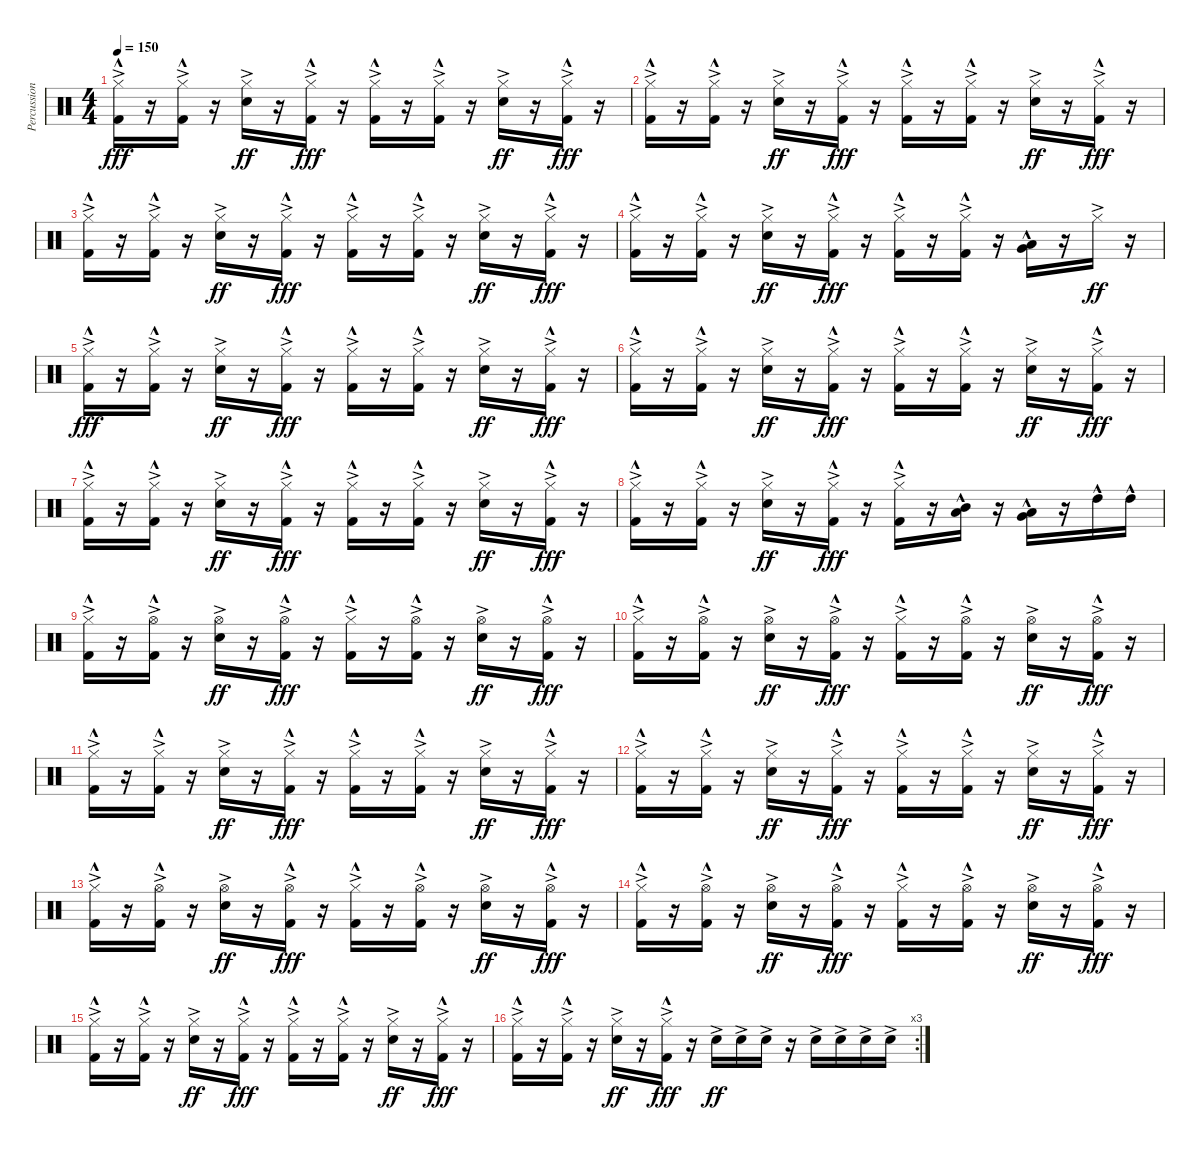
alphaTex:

\track ("Percussion" "Percussion") {instrument percussion bank 2}
\staff {score}
\articulation defaults
\ts (4 4)
\tempo 150
\clef neutral
\ks c
("Hi-Hat (closed)"{ac} "Kick (hit) 2"{hac}).16{dy fff} r.16 ("Hi-Hat (closed)"{ac} "Kick (hit) 2"{hac}).16 r.16 ("Hi-Hat (closed)"{ac} "Snare (hit) 2"{ac}).16{dy ff} r.16 ("Hi-Hat (closed)"{ac} "Kick (hit) 2"{hac}).16{dy fff} r.16 ("Hi-Hat (closed)"{ac} "Kick (hit) 2"{hac}).16 r.16 ("Hi-Hat (closed)"{ac} "Kick (hit) 2"{hac}).16 r.16 ("Hi-Hat (closed)"{ac} "Snare (hit) 2"{ac}).16{dy ff} r.16 ("Hi-Hat (closed)"{ac} "Kick (hit) 2"{hac}).16{dy fff} r.16 |
("Hi-Hat (closed)"{ac} "Kick (hit) 2"{hac}).16 r.16 ("Hi-Hat (closed)"{ac} "Kick (hit) 2"{hac}).16 r.16 ("Hi-Hat (closed)"{ac} "Snare (hit) 2"{ac}).16{dy ff} r.16 ("Hi-Hat (closed)"{ac} "Kick (hit) 2"{hac}).16{dy fff} r.16 ("Hi-Hat (closed)"{ac} "Kick (hit) 2"{hac}).16 r.16 ("Hi-Hat (closed)"{ac} "Kick (hit) 2"{hac}).16 r.16 ("Hi-Hat (closed)"{ac} "Snare (hit) 2"{ac}).16{dy ff} r.16 ("Hi-Hat (closed)"{ac} "Kick (hit) 2"{hac}).16{dy fff} r.16 |
("Hi-Hat (closed)"{ac} "Kick (hit) 2"{hac}).16 r.16 ("Hi-Hat (closed)"{ac} "Kick (hit) 2"{hac}).16 r.16 ("Hi-Hat (closed)"{ac} "Snare (hit) 2"{ac}).16{dy ff} r.16 ("Hi-Hat (closed)"{ac} "Kick (hit) 2"{hac}).16{dy fff} r.16 ("Hi-Hat (closed)"{ac} "Kick (hit) 2"{hac}).16 r.16 ("Hi-Hat (closed)"{ac} "Kick (hit) 2"{hac}).16 r.16 ("Hi-Hat (closed)"{ac} "Snare (hit) 2"{ac}).16{dy ff} r.16 ("Hi-Hat (closed)"{ac} "Kick (hit) 2"{hac}).16{dy fff} r.16 |
("Hi-Hat (closed)"{ac} "Kick (hit) 2"{hac}).16 r.16 ("Hi-Hat (closed)"{ac} "Kick (hit) 2"{hac}).16 r.16 ("Hi-Hat (closed)"{ac} "Snare (hit) 2"{ac}).16{dy ff} r.16 ("Hi-Hat (closed)"{ac} "Kick (hit) 2"{hac}).16{dy fff} r.16 ("Hi-Hat (closed)"{ac} "Kick (hit) 2"{hac}).16 r.16 ("Hi-Hat (closed)"{ac} "Kick (hit) 2"{hac}).16 r.16 ("Very Low Tom (hit)"{hac} "Low Tom (hit)"{hac}).16 r.16 "Hi-Hat (closed)"{ac}.16{dy ff} r.16 |
("Hi-Hat (closed)"{ac} "Kick (hit) 2"{hac}).16{dy fff} r.16 ("Hi-Hat (closed)"{ac} "Kick (hit) 2"{hac}).16 r.16 ("Hi-Hat (closed)"{ac} "Snare (hit) 2"{ac}).16{dy ff} r.16 ("Hi-Hat (closed)"{ac} "Kick (hit) 2"{hac}).16{dy fff} r.16 ("Hi-Hat (closed)"{ac} "Kick (hit) 2"{hac}).16 r.16 ("Hi-Hat (closed)"{ac} "Kick (hit) 2"{hac}).16 r.16 ("Hi-Hat (closed)"{ac} "Snare (hit) 2"{ac}).16{dy ff} r.16 ("Hi-Hat (closed)"{ac} "Kick (hit) 2"{hac}).16{dy fff} r.16 |
("Hi-Hat (closed)"{ac} "Kick (hit) 2"{hac}).16 r.16 ("Hi-Hat (closed)"{ac} "Kick (hit) 2"{hac}).16 r.16 ("Hi-Hat (closed)"{ac} "Snare (hit) 2"{ac}).16{dy ff} r.16 ("Hi-Hat (closed)"{ac} "Kick (hit) 2"{hac}).16{dy fff} r.16 ("Hi-Hat (closed)"{ac} "Kick (hit) 2"{hac}).16 r.16 ("Hi-Hat (closed)"{ac} "Kick (hit) 2"{hac}).16 r.16 ("Hi-Hat (closed)"{ac} "Snare (hit) 2"{ac}).16{dy ff} r.16 ("Hi-Hat (closed)"{ac} "Kick (hit) 2"{hac}).16{dy fff} r.16 |
("Hi-Hat (closed)"{ac} "Kick (hit) 2"{hac}).16 r.16 ("Hi-Hat (closed)"{ac} "Kick (hit) 2"{hac}).16 r.16 ("Hi-Hat (closed)"{ac} "Snare (hit) 2"{ac}).16{dy ff} r.16 ("Hi-Hat (closed)"{ac} "Kick (hit) 2"{hac}).16{dy fff} r.16 ("Hi-Hat (closed)"{ac} "Kick (hit) 2"{hac}).16 r.16 ("Hi-Hat (closed)"{ac} "Kick (hit) 2"{hac}).16 r.16 ("Hi-Hat (closed)"{ac} "Snare (hit) 2"{ac}).16{dy ff} r.16 ("Hi-Hat (closed)"{ac} "Kick (hit) 2"{hac}).16{dy fff} r.16 |
("Hi-Hat (closed)"{ac} "Kick (hit) 2"{hac}).16 r.16 ("Hi-Hat (closed)"{ac} "Kick (hit) 2"{hac}).16 r.16 ("Hi-Hat (closed)"{ac} "Snare (hit) 2"{ac}).16{dy ff} r.16 ("Hi-Hat (closed)"{ac} "Kick (hit) 2"{hac}).16{dy fff} r.16 ("Hi-Hat (closed)"{ac} "Kick (hit) 2"{hac}).16 r.16 ("Mid Tom (hit)"{hac} "Low Tom (hit)"{hac}).16 r.16 ("Low Tom (hit)"{hac} "Very Low Tom (hit)"{hac}).16 r.16 "High Tom (hit)"{hac}.16 "High Tom (hit)"{hac}.16 |
("Hi-Hat (closed)"{ac} "Kick (hit) 2"{hac}).16 r.16 ("Hi-Hat (open)"{ac} "Kick (hit) 2"{hac}).16 r.16 ("Hi-Hat (open)"{ac} "Snare (hit) 2"{ac}).16{dy ff} r.16 ("Hi-Hat (open)"{ac} "Kick (hit) 2"{hac}).16{dy fff} r.16 ("Hi-Hat (closed)"{ac} "Kick (hit) 2"{hac}).16 r.16 ("Hi-Hat (open)"{ac} "Kick (hit) 2"{hac}).16 r.16 ("Hi-Hat (open)"{ac} "Snare (hit) 2"{ac}).16{dy ff} r.16 ("Hi-Hat (open)"{ac} "Kick (hit) 2"{hac}).16{dy fff} r.16 |
("Hi-Hat (closed)"{ac} "Kick (hit) 2"{hac}).16 r.16 ("Hi-Hat (open)"{ac} "Kick (hit) 2"{hac}).16 r.16 ("Hi-Hat (open)"{ac} "Snare (hit) 2"{ac}).16{dy ff} r.16 ("Hi-Hat (open)"{ac} "Kick (hit) 2"{hac}).16{dy fff} r.16 ("Hi-Hat (closed)"{ac} "Kick (hit) 2"{hac}).16 r.16 ("Hi-Hat (open)"{ac} "Kick (hit) 2"{hac}).16 r.16 ("Hi-Hat (open)"{ac} "Snare (hit) 2"{ac}).16{dy ff} r.16 ("Hi-Hat (open)"{ac} "Kick (hit) 2"{hac}).16{dy fff} r.16 |
("Hi-Hat (closed)"{ac} "Kick (hit) 2"{hac}).16 r.16 ("Hi-Hat (closed)"{ac} "Kick (hit) 2"{hac}).16 r.16 ("Hi-Hat (closed)"{ac} "Snare (hit) 2"{ac}).16{dy ff} r.16 ("Hi-Hat (closed)"{ac} "Kick (hit) 2"{hac}).16{dy fff} r.16 ("Hi-Hat (closed)"{ac} "Kick (hit) 2"{hac}).16 r.16 ("Hi-Hat (closed)"{ac} "Kick (hit) 2"{hac}).16 r.16 ("Hi-Hat (closed)"{ac} "Snare (hit) 2"{ac}).16{dy ff} r.16 ("Hi-Hat (closed)"{ac} "Kick (hit) 2"{hac}).16{dy fff} r.16 |
("Hi-Hat (closed)"{ac} "Kick (hit) 2"{hac}).16 r.16 ("Hi-Hat (closed)"{ac} "Kick (hit) 2"{hac}).16 r.16 ("Hi-Hat (closed)"{ac} "Snare (hit) 2"{ac}).16{dy ff} r.16 ("Hi-Hat (closed)"{ac} "Kick (hit) 2"{hac}).16{dy fff} r.16 ("Hi-Hat (closed)"{ac} "Kick (hit) 2"{hac}).16 r.16 ("Hi-Hat (closed)"{ac} "Kick (hit) 2"{hac}).16 r.16 ("Hi-Hat (closed)"{ac} "Snare (hit) 2"{ac}).16{dy ff} r.16 ("Hi-Hat (closed)"{ac} "Kick (hit) 2"{hac}).16{dy fff} r.16 |
("Hi-Hat (closed)"{ac} "Kick (hit) 2"{hac}).16 r.16 ("Hi-Hat (open)"{ac} "Kick (hit) 2"{hac}).16 r.16 ("Hi-Hat (open)"{ac} "Snare (hit) 2"{ac}).16{dy ff} r.16 ("Hi-Hat (open)"{ac} "Kick (hit) 2"{hac}).16{dy fff} r.16 ("Hi-Hat (closed)"{ac} "Kick (hit) 2"{hac}).16 r.16 ("Hi-Hat (open)"{ac} "Kick (hit) 2"{hac}).16 r.16 ("Hi-Hat (open)"{ac} "Snare (hit) 2"{ac}).16{dy ff} r.16 ("Hi-Hat (open)"{ac} "Kick (hit) 2"{hac}).16{dy fff} r.16 |
("Hi-Hat (closed)"{ac} "Kick (hit) 2"{hac}).16 r.16 ("Hi-Hat (open)"{ac} "Kick (hit) 2"{hac}).16 r.16 ("Hi-Hat (open)"{ac} "Snare (hit) 2"{ac}).16{dy ff} r.16 ("Hi-Hat (open)"{ac} "Kick (hit) 2"{hac}).16{dy fff} r.16 ("Hi-Hat (closed)"{ac} "Kick (hit) 2"{hac}).16 r.16 ("Hi-Hat (open)"{ac} "Kick (hit) 2"{hac}).16 r.16 ("Hi-Hat (open)"{ac} "Snare (hit) 2"{ac}).16{dy ff} r.16 ("Hi-Hat (open)"{ac} "Kick (hit) 2"{hac}).16{dy fff} r.16 |
("Hi-Hat (closed)"{ac} "Kick (hit) 2"{hac}).16 r.16 ("Hi-Hat (closed)"{ac} "Kick (hit) 2"{hac}).16 r.16 ("Hi-Hat (closed)"{ac} "Snare (hit) 2"{ac}).16{dy ff} r.16 ("Hi-Hat (closed)"{ac} "Kick (hit) 2"{hac}).16{dy fff} r.16 ("Hi-Hat (closed)"{ac} "Kick (hit) 2"{hac}).16 r.16 ("Hi-Hat (closed)"{ac} "Kick (hit) 2"{hac}).16 r.16 ("Hi-Hat (closed)"{ac} "Snare (hit) 2"{ac}).16{dy ff} r.16 ("Hi-Hat (closed)"{ac} "Kick (hit) 2"{hac}).16{dy fff} r.16 |
\rc 3
("Hi-Hat (closed)"{ac} "Kick (hit) 2"{hac}).16 r.16 ("Hi-Hat (closed)"{ac} "Kick (hit) 2"{hac}).16 r.16 ("Hi-Hat (closed)"{ac} "Snare (hit) 2"{ac}).16{dy ff} r.16 ("Hi-Hat (closed)"{ac} "Kick (hit) 2"{hac}).16{dy fff} r.16 "Snare (hit) 2"{ac}.16{dy ff} "Snare (hit) 2"{ac}.16 "Snare (hit) 2"{ac}.16 r.16 "Snare (hit) 2"{ac}.16 "Snare (hit) 2"{ac}.16 "Snare (hit) 2"{ac}.16 "Snare (hit) 2"{ac}.16
